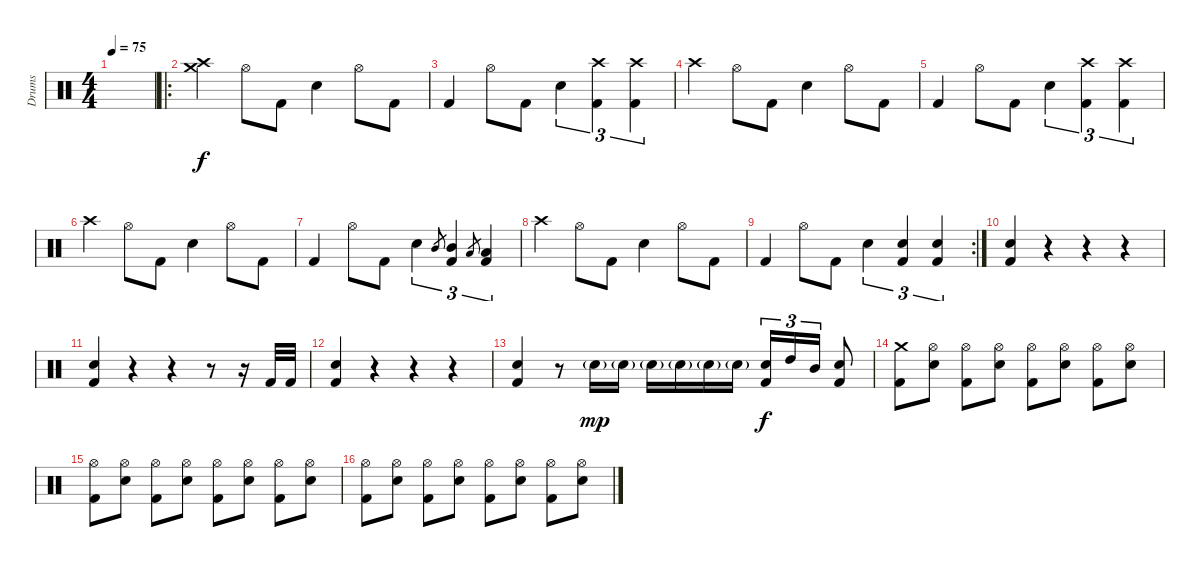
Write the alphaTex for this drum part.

\track ("Drums" "Drums") {instrument percussion}
\staff {score}
\articulation defaults
\ts (4 4)
\tempo 75
\clef neutral
\ks c
|
\ro
("Crash high (hit)" "Crash medium (hit)").4 "Hi-Hat (open)".8 "Kick (hit) 2".8 "Electric Snare (hit)".4 "Hi-Hat (open)".8 "Kick (hit) 2".8 |
"Kick (hit) 2".4 "Hi-Hat (open)".8 "Kick (hit) 2".8 "Electric Snare (hit)".4{tu (3 2)} ("Kick (hit) 2" "Crash high (hit)").4{tu (3 2)} ("Kick (hit) 2" "Crash high (hit)").4{tu (3 2)} |
"Crash high (hit)".4 "Hi-Hat (open)".8 "Kick (hit) 2".8 "Electric Snare (hit)".4 "Hi-Hat (open)".8 "Kick (hit) 2".8 |
"Kick (hit) 2".4 "Hi-Hat (open)".8 "Kick (hit) 2".8 "Electric Snare (hit)".4{tu (3 2)} ("Kick (hit) 2" "Crash high (hit)").4{tu (3 2)} ("Kick (hit) 2" "Crash high (hit)").4{tu (3 2)} |
"Crash high (hit)".4 "Hi-Hat (open)".8 "Kick (hit) 2".8 "Electric Snare (hit)".4 "Hi-Hat (open)".8 "Kick (hit) 2".8 |
"Kick (hit) 2".4 "Hi-Hat (open)".8 "Kick (hit) 2".8 "Electric Snare (hit)".4{tu (3 2)} "Mid Tom (hit)".8{gr} ("Kick (hit) 2" "Mid Tom (hit)").4{tu (3 2)} "Low Tom (hit)".8{gr} ("Kick (hit) 2" "Low Tom (hit)").4{tu (3 2)} |
"Crash high (hit)".4 "Hi-Hat (open)".8 "Kick (hit) 2".8 "Electric Snare (hit)".4 "Hi-Hat (open)".8 "Kick (hit) 2".8 |
\rc 2 "Kick (hit) 2".4 "Hi-Hat (open)".8 "Kick (hit) 2".8 "Electric Snare (hit)".4{tu (3 2)}
("Kick (hit) 2" "Electric Snare (hit)").4{tu (3 2)} ("Kick (hit) 2" "Electric Snare (hit)").4{tu (3 2)} |
\section ("" "")
("Kick (hit) 2" "Electric Snare (hit)").4 r.4 r.4 r.4 |
("Kick (hit) 2" "Electric Snare (hit)").4 r.4 r.4 r.8 r.16 "Kick (hit) 2".32 "Kick (hit) 2".32 |
("Kick (hit) 2" "Electric Snare (hit)").4 r.4 r.4 r.4 |
("Kick (hit) 2" "Electric Snare (hit)").4 r.8 "Electric Snare (hit)"{g}.16{dy mp} "Electric Snare (hit)"{g}.16 "Electric Snare (hit)"{g}.16 "Electric Snare (hit)"{g}.16 "Electric Snare (hit)"{g}.16 "Electric Snare (hit)"{g}.16 ("Kick (hit) 2" "Electric Snare (hit)").16{tu (3 2) dy f} "High Tom (hit)".16{tu (3 2)} "Mid Tom (hit)".16{tu (3 2)} ("Kick (hit) 2" "Electric Snare (hit)").8 |
("Kick (hit) 2" "Crash medium (hit)").8 ("Electric Snare (hit)" "Hi-Hat (open)").8 ("Kick (hit) 2" "Hi-Hat (open)").8 ("Electric Snare (hit)" "Hi-Hat (open)").8 ("Kick (hit) 2" "Hi-Hat (open)").8 ("Electric Snare (hit)" "Hi-Hat (open)").8 ("Kick (hit) 2" "Hi-Hat (open)").8 ("Electric Snare (hit)" "Hi-Hat (open)").8 |
("Kick (hit) 2" "Hi-Hat (open)").8 ("Electric Snare (hit)" "Hi-Hat (open)").8 ("Kick (hit) 2" "Hi-Hat (open)").8 ("Electric Snare (hit)" "Hi-Hat (open)").8 ("Kick (hit) 2" "Hi-Hat (open)").8 ("Electric Snare (hit)" "Hi-Hat (open)").8 ("Kick (hit) 2" "Hi-Hat (open)").8 ("Electric Snare (hit)" "Hi-Hat (open)").8 |
("Kick (hit) 2" "Hi-Hat (open)").8 ("Electric Snare (hit)" "Hi-Hat (open)").8 ("Kick (hit) 2" "Hi-Hat (open)").8 ("Electric Snare (hit)" "Hi-Hat (open)").8 ("Kick (hit) 2" "Hi-Hat (open)").8 ("Electric Snare (hit)" "Hi-Hat (open)").8 ("Kick (hit) 2" "Hi-Hat (open)").8 ("Electric Snare (hit)" "Hi-Hat (open)").8
